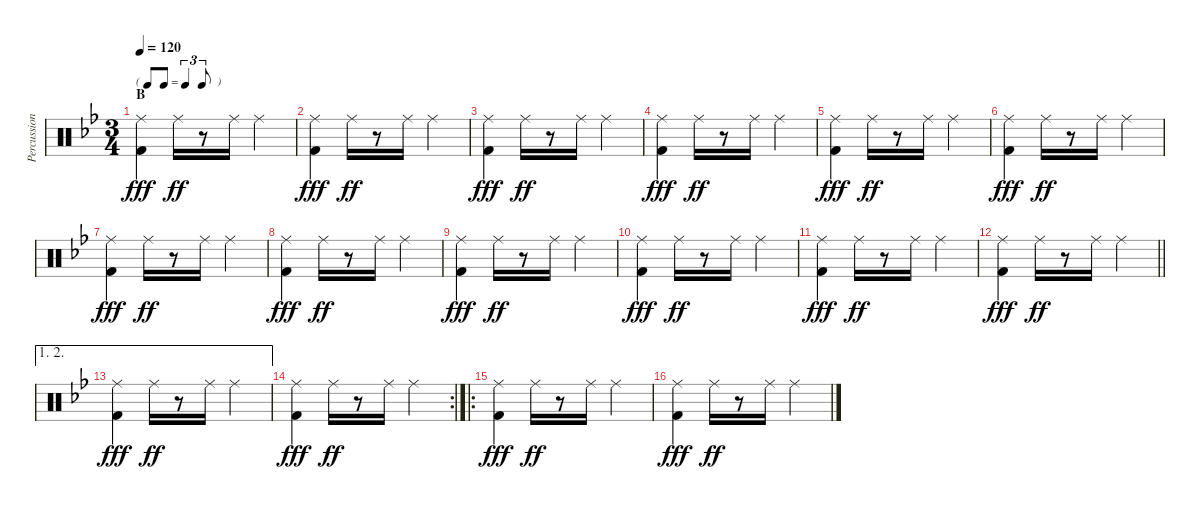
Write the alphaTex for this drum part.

\track ("Percussion" "Percussion") {instrument percussion}
\staff {score}
\articulation defaults
\ts (3 4)
\tf triplet8th
\section ("" "B ")
\tempo 120
\clef neutral
\ks bb
("Ride (middle)" "Kick (hit) 2").4{dy fff} "Ride (middle)".16{dy ff} r.8 "Ride (middle)".16 "Ride (middle)".4 |
("Ride (middle)" "Kick (hit) 2").4{dy fff} "Ride (middle)".16{dy ff} r.8 "Ride (middle)".16 "Ride (middle)".4 |
("Ride (middle)" "Kick (hit) 2").4{dy fff} "Ride (middle)".16{dy ff} r.8 "Ride (middle)".16 "Ride (middle)".4 |
("Ride (middle)" "Kick (hit) 2").4{dy fff} "Ride (middle)".16{dy ff} r.8 "Ride (middle)".16 "Ride (middle)".4 |
("Ride (middle)" "Kick (hit) 2").4{dy fff} "Ride (middle)".16{dy ff} r.8 "Ride (middle)".16 "Ride (middle)".4 |
("Ride (middle)" "Kick (hit) 2").4{dy fff} "Ride (middle)".16{dy ff} r.8 "Ride (middle)".16 "Ride (middle)".4 |
("Ride (middle)" "Kick (hit) 2").4{dy fff} "Ride (middle)".16{dy ff} r.8 "Ride (middle)".16 "Ride (middle)".4 |
("Ride (middle)" "Kick (hit) 2").4{dy fff} "Ride (middle)".16{dy ff} r.8 "Ride (middle)".16 "Ride (middle)".4 |
("Ride (middle)" "Kick (hit) 2").4{dy fff} "Ride (middle)".16{dy ff} r.8 "Ride (middle)".16 "Ride (middle)".4 |
("Ride (middle)" "Kick (hit) 2").4{dy fff} "Ride (middle)".16{dy ff} r.8 "Ride (middle)".16 "Ride (middle)".4 |
("Ride (middle)" "Kick (hit) 2").4{dy fff} "Ride (middle)".16{dy ff} r.8 "Ride (middle)".16 "Ride (middle)".4 |
\barLineRight lightlight
("Ride (middle)" "Kick (hit) 2").4{dy fff} "Ride (middle)".16{dy ff} r.8 "Ride (middle)".16 "Ride (middle)".4 |
\ae (1 2)
("Ride (middle)" "Kick (hit) 2").4{dy fff} "Ride (middle)".16{dy ff} r.8 "Ride (middle)".16 "Ride (middle)".4 |
\rc 2
("Ride (middle)" "Kick (hit) 2").4{dy fff} "Ride (middle)".16{dy ff} r.8 "Ride (middle)".16 "Ride (middle)".4 |
\ro
("Ride (middle)" "Kick (hit) 2").4{dy fff} "Ride (middle)".16{dy ff} r.8 "Ride (middle)".16 "Ride (middle)".4 |
("Ride (middle)" "Kick (hit) 2").4{dy fff} "Ride (middle)".16{dy ff} r.8 "Ride (middle)".16 "Ride (middle)".4
